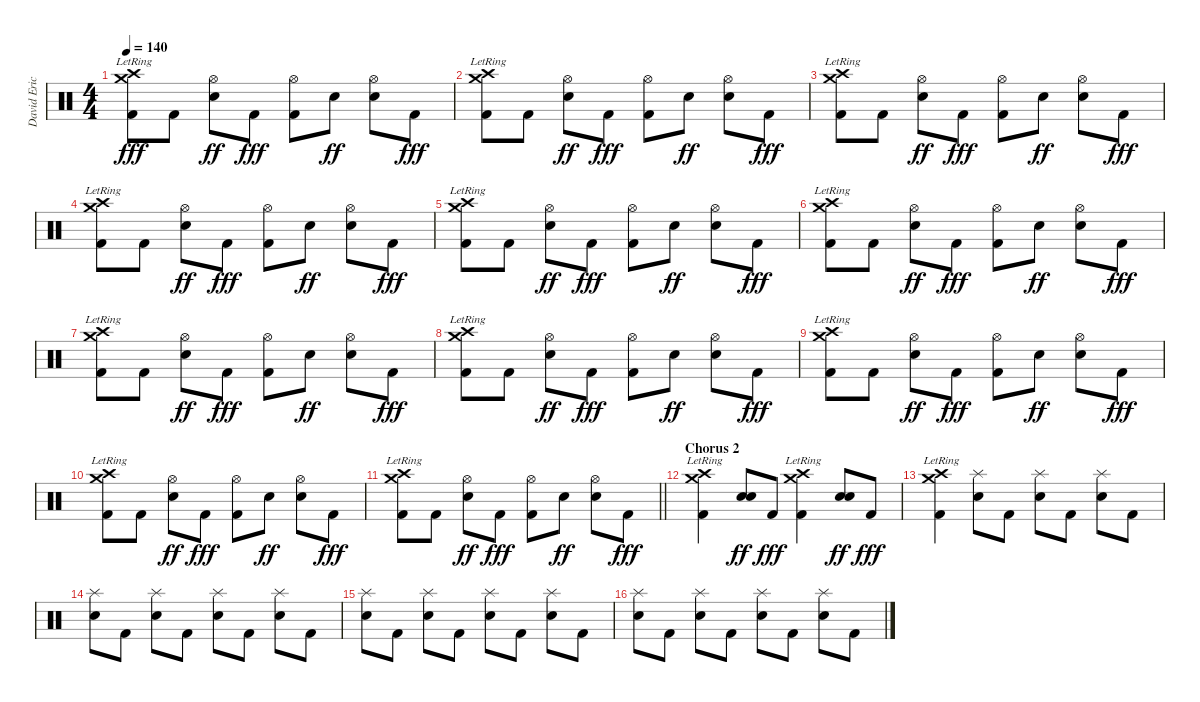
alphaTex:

\track ("David Eric Grohl" "David Eric") {instrument percussion}
\staff {score}
\articulation defaults
\ts (4 4)
\tempo 140
\clef neutral
\ks c
("Crash high (hit)"{lr} "Crash medium (hit)"{lr} "Kick (hit) 2").8{dy fff} "Kick (hit) 2".8 ("Hi-Hat (open)" "Electric Snare (hit)").8{dy ff} "Kick (hit) 2".8{dy fff} ("Hi-Hat (open)" "Kick (hit) 2").8 "Electric Snare (hit)".8{dy ff} ("Hi-Hat (open)" "Electric Snare (hit)").8 "Kick (hit) 2".8{dy fff} |
("Crash high (hit)"{lr} "Crash medium (hit)"{lr} "Kick (hit) 2").8 "Kick (hit) 2".8 ("Hi-Hat (open)" "Electric Snare (hit)").8{dy ff} "Kick (hit) 2".8{dy fff} ("Hi-Hat (open)" "Kick (hit) 2").8 "Electric Snare (hit)".8{dy ff} ("Hi-Hat (open)" "Electric Snare (hit)").8 "Kick (hit) 2".8{dy fff} |
("Crash high (hit)"{lr} "Crash medium (hit)"{lr} "Kick (hit) 2").8 "Kick (hit) 2".8 ("Hi-Hat (open)" "Electric Snare (hit)").8{dy ff} "Kick (hit) 2".8{dy fff} ("Hi-Hat (open)" "Kick (hit) 2").8 "Electric Snare (hit)".8{dy ff} ("Hi-Hat (open)" "Electric Snare (hit)").8 "Kick (hit) 2".8{dy fff} |
("Crash high (hit)"{lr} "Crash medium (hit)"{lr} "Kick (hit) 2").8 "Kick (hit) 2".8 ("Hi-Hat (open)" "Electric Snare (hit)").8{dy ff} "Kick (hit) 2".8{dy fff} ("Hi-Hat (open)" "Kick (hit) 2").8 "Electric Snare (hit)".8{dy ff} ("Hi-Hat (open)" "Electric Snare (hit)").8 "Kick (hit) 2".8{dy fff} |
("Crash high (hit)"{lr} "Crash medium (hit)"{lr} "Kick (hit) 2").8 "Kick (hit) 2".8 ("Hi-Hat (open)" "Electric Snare (hit)").8{dy ff} "Kick (hit) 2".8{dy fff} ("Hi-Hat (open)" "Kick (hit) 2").8 "Electric Snare (hit)".8{dy ff} ("Hi-Hat (open)" "Electric Snare (hit)").8 "Kick (hit) 2".8{dy fff} |
("Crash high (hit)"{lr} "Crash medium (hit)"{lr} "Kick (hit) 2").8 "Kick (hit) 2".8 ("Hi-Hat (open)" "Electric Snare (hit)").8{dy ff} "Kick (hit) 2".8{dy fff} ("Hi-Hat (open)" "Kick (hit) 2").8 "Electric Snare (hit)".8{dy ff} ("Hi-Hat (open)" "Electric Snare (hit)").8 "Kick (hit) 2".8{dy fff} |
("Crash high (hit)"{lr} "Crash medium (hit)"{lr} "Kick (hit) 2").8 "Kick (hit) 2".8 ("Hi-Hat (open)" "Electric Snare (hit)").8{dy ff} "Kick (hit) 2".8{dy fff} ("Hi-Hat (open)" "Kick (hit) 2").8 "Electric Snare (hit)".8{dy ff} ("Hi-Hat (open)" "Electric Snare (hit)").8 "Kick (hit) 2".8{dy fff} |
("Crash high (hit)"{lr} "Crash medium (hit)"{lr} "Kick (hit) 2").8 "Kick (hit) 2".8 ("Hi-Hat (open)" "Electric Snare (hit)").8{dy ff} "Kick (hit) 2".8{dy fff} ("Hi-Hat (open)" "Kick (hit) 2").8 "Electric Snare (hit)".8{dy ff} ("Hi-Hat (open)" "Electric Snare (hit)").8 "Kick (hit) 2".8{dy fff} |
("Crash high (hit)"{lr} "Crash medium (hit)"{lr} "Kick (hit) 2").8 "Kick (hit) 2".8 ("Hi-Hat (open)" "Electric Snare (hit)").8{dy ff} "Kick (hit) 2".8{dy fff} ("Hi-Hat (open)" "Kick (hit) 2").8 "Electric Snare (hit)".8{dy ff} ("Hi-Hat (open)" "Electric Snare (hit)").8 "Kick (hit) 2".8{dy fff} |
("Crash high (hit)"{lr} "Crash medium (hit)"{lr} "Kick (hit) 2").8 "Kick (hit) 2".8 ("Hi-Hat (open)" "Electric Snare (hit)").8{dy ff} "Kick (hit) 2".8{dy fff} ("Hi-Hat (open)" "Kick (hit) 2").8 "Electric Snare (hit)".8{dy ff} ("Hi-Hat (open)" "Electric Snare (hit)").8 "Kick (hit) 2".8{dy fff} |
\barLineRight lightlight
("Crash high (hit)"{lr} "Crash medium (hit)"{lr} "Kick (hit) 2").8 "Kick (hit) 2".8 ("Hi-Hat (open)" "Electric Snare (hit)").8{dy ff} "Kick (hit) 2".8{dy fff} ("Hi-Hat (open)" "Kick (hit) 2").8 "Electric Snare (hit)".8{dy ff} ("Hi-Hat (open)" "Electric Snare (hit)").8 "Kick (hit) 2".8{dy fff} |
\section ("" "Chorus 2")
("Crash high (hit)"{lr} "Crash medium (hit)"{lr} "Kick (hit) 2").4 ("Electric Snare (hit)" "Electric Snare (hit)").8{dy ff} "Kick (hit) 2".8{dy fff} ("Crash high (hit)"{lr} "Crash medium (hit)"{lr} "Kick (hit) 2").4 ("Electric Snare (hit)" "Electric Snare (hit)").8{dy ff} "Kick (hit) 2".8{dy fff} |
("Crash high (hit)"{lr} "Crash medium (hit)"{lr} "Kick (hit) 2").4 ("Electric Snare (hit)" "Splash (hit)").8 "Kick (hit) 2".8 ("Electric Snare (hit)" "Splash (hit)").8 "Kick (hit) 2".8 ("Electric Snare (hit)" "Splash (hit)").8 "Kick (hit) 2".8 |
("Electric Snare (hit)" "Splash (hit)").8 "Kick (hit) 2".8 ("Electric Snare (hit)" "Splash (hit)").8 "Kick (hit) 2".8 ("Electric Snare (hit)" "Splash (hit)").8 "Kick (hit) 2".8 ("Electric Snare (hit)" "Splash (hit)").8 "Kick (hit) 2".8 |
("Electric Snare (hit)" "Splash (hit)").8 "Kick (hit) 2".8 ("Electric Snare (hit)" "Splash (hit)").8 "Kick (hit) 2".8 ("Electric Snare (hit)" "Splash (hit)").8 "Kick (hit) 2".8 ("Electric Snare (hit)" "Splash (hit)").8 "Kick (hit) 2".8 |
("Electric Snare (hit)" "Splash (hit)").8 "Kick (hit) 2".8 ("Electric Snare (hit)" "Splash (hit)").8 "Kick (hit) 2".8 ("Electric Snare (hit)" "Splash (hit)").8 "Kick (hit) 2".8 ("Electric Snare (hit)" "Splash (hit)").8 "Kick (hit) 2".8
